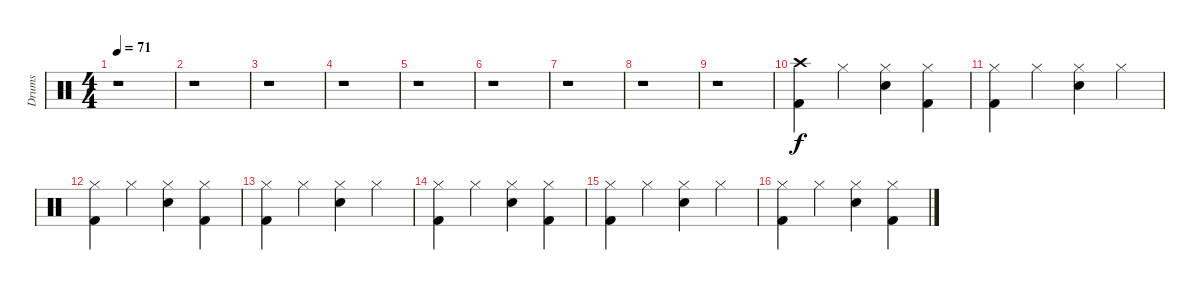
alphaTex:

\track ("Drums" "Drums") {instrument percussion}
\staff {score}
\articulation defaults
\ts (4 4)
\tempo 71
\clef neutral
\ks c
r.1{dy f} |
r.1 |
r.1 |
r.1 |
r.1 |
r.1 |
r.1 |
r.1 |
r.1 |
("Crash high (hit)" "Kick (hit) 2").4 "Hi-Hat (closed)".4 ("Hi-Hat (closed)" "Snare (hit) 2").4 ("Hi-Hat (closed)" "Kick (hit) 2").4 |
("Hi-Hat (closed)" "Kick (hit) 2").4 "Hi-Hat (closed)".4 ("Hi-Hat (closed)" "Snare (hit) 2").4 "Hi-Hat (closed)".4 |
("Hi-Hat (closed)" "Kick (hit) 2").4 "Hi-Hat (closed)".4 ("Hi-Hat (closed)" "Snare (hit) 2").4 ("Hi-Hat (closed)" "Kick (hit) 2").4 |
("Hi-Hat (closed)" "Kick (hit) 2").4 "Hi-Hat (closed)".4 ("Hi-Hat (closed)" "Snare (hit) 2").4 "Hi-Hat (closed)".4 |
("Hi-Hat (closed)" "Kick (hit) 2").4 "Hi-Hat (closed)".4 ("Hi-Hat (closed)" "Snare (hit) 2").4 ("Hi-Hat (closed)" "Kick (hit) 2").4 |
("Hi-Hat (closed)" "Kick (hit) 2").4 "Hi-Hat (closed)".4 ("Hi-Hat (closed)" "Snare (hit) 2").4 "Hi-Hat (closed)".4 |
("Hi-Hat (closed)" "Kick (hit) 2").4 "Hi-Hat (closed)".4 ("Hi-Hat (closed)" "Snare (hit) 2").4 ("Hi-Hat (closed)" "Kick (hit) 2").4
